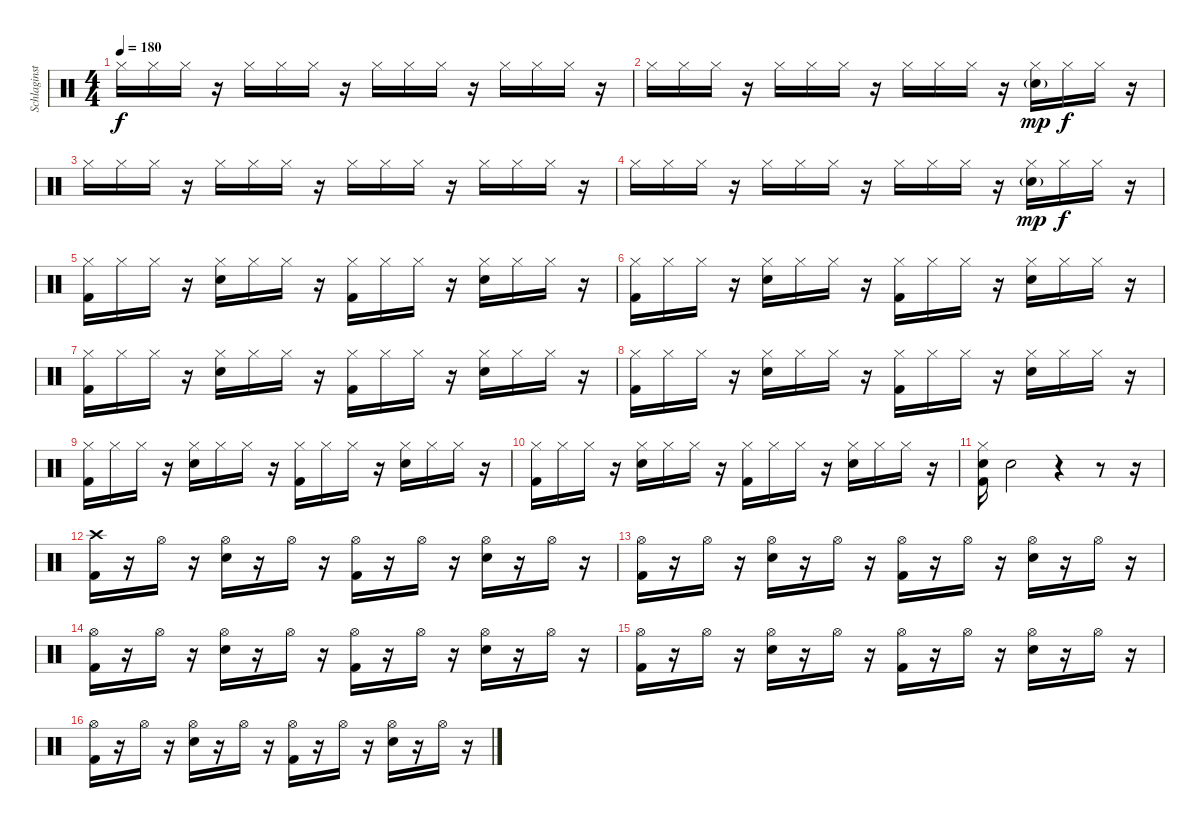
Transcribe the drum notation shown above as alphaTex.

\track ("Schlaginstrumente - Auswahl" "Schlaginst") {instrument percussion}
\staff {score}
\articulation defaults
\ts (4 4)
\tempo 180
\clef neutral
\ks c "Hi-Hat (closed)".16{dy f} "Hi-Hat (closed)".16 "Hi-Hat (closed)".16
r.16 "Hi-Hat (closed)".16 "Hi-Hat (closed)".16 "Hi-Hat (closed)".16 r.16 "Hi-Hat (closed)".16 "Hi-Hat (closed)".16 "Hi-Hat (closed)".16 r.16 "Hi-Hat (closed)".16 "Hi-Hat (closed)".16 "Hi-Hat (closed)".16 r.16 |
"Hi-Hat (closed)".16 "Hi-Hat (closed)".16 "Hi-Hat (closed)".16 r.16 "Hi-Hat (closed)".16 "Hi-Hat (closed)".16 "Hi-Hat (closed)".16 r.16 "Hi-Hat (closed)".16 "Hi-Hat (closed)".16 "Hi-Hat (closed)".16 r.16 ("Hi-Hat (closed)" "Snare (hit) 2"{g}).16{dy mp} "Hi-Hat (closed)".16{dy f} "Hi-Hat (closed)".16 r.16 |
"Hi-Hat (closed)".16 "Hi-Hat (closed)".16 "Hi-Hat (closed)".16 r.16 "Hi-Hat (closed)".16 "Hi-Hat (closed)".16 "Hi-Hat (closed)".16 r.16 "Hi-Hat (closed)".16 "Hi-Hat (closed)".16 "Hi-Hat (closed)".16 r.16 "Hi-Hat (closed)".16 "Hi-Hat (closed)".16 "Hi-Hat (closed)".16 r.16 |
"Hi-Hat (closed)".16 "Hi-Hat (closed)".16 "Hi-Hat (closed)".16 r.16 "Hi-Hat (closed)".16 "Hi-Hat (closed)".16 "Hi-Hat (closed)".16 r.16 "Hi-Hat (closed)".16 "Hi-Hat (closed)".16 "Hi-Hat (closed)".16 r.16 ("Hi-Hat (closed)" "Snare (hit) 2"{g}).16{dy mp} "Hi-Hat (closed)".16{dy f} "Hi-Hat (closed)".16 r.16 |
("Hi-Hat (closed)" "Kick (hit) 2").16 "Hi-Hat (closed)".16 "Hi-Hat (closed)".16 r.16 ("Hi-Hat (closed)" "Snare (hit) 2").16 "Hi-Hat (closed)".16 "Hi-Hat (closed)".16 r.16 ("Hi-Hat (closed)" "Kick (hit) 2").16 "Hi-Hat (closed)".16 "Hi-Hat (closed)".16 r.16 ("Hi-Hat (closed)" "Snare (hit) 2").16 "Hi-Hat (closed)".16 "Hi-Hat (closed)".16 r.16 |
("Hi-Hat (closed)" "Kick (hit) 2").16 "Hi-Hat (closed)".16 "Hi-Hat (closed)".16 r.16 ("Hi-Hat (closed)" "Snare (hit) 2").16 "Hi-Hat (closed)".16 "Hi-Hat (closed)".16 r.16 ("Hi-Hat (closed)" "Kick (hit) 2").16 "Hi-Hat (closed)".16 "Hi-Hat (closed)".16 r.16 ("Hi-Hat (closed)" "Snare (hit) 2").16 "Hi-Hat (closed)".16 "Hi-Hat (closed)".16 r.16 |
("Hi-Hat (closed)" "Kick (hit) 2").16 "Hi-Hat (closed)".16 "Hi-Hat (closed)".16 r.16 ("Hi-Hat (closed)" "Snare (hit) 2").16 "Hi-Hat (closed)".16 "Hi-Hat (closed)".16 r.16 ("Hi-Hat (closed)" "Kick (hit) 2").16 "Hi-Hat (closed)".16 "Hi-Hat (closed)".16 r.16 ("Hi-Hat (closed)" "Snare (hit) 2").16 "Hi-Hat (closed)".16 "Hi-Hat (closed)".16 r.16 |
("Hi-Hat (closed)" "Kick (hit) 2").16 "Hi-Hat (closed)".16 "Hi-Hat (closed)".16 r.16 ("Hi-Hat (closed)" "Snare (hit) 2").16 "Hi-Hat (closed)".16 "Hi-Hat (closed)".16 r.16 ("Hi-Hat (closed)" "Kick (hit) 2").16 "Hi-Hat (closed)".16 "Hi-Hat (closed)".16 r.16 ("Hi-Hat (closed)" "Snare (hit) 2").16 "Hi-Hat (closed)".16 "Hi-Hat (closed)".16 r.16 |
("Hi-Hat (closed)" "Kick (hit) 2").16 "Hi-Hat (closed)".16 "Hi-Hat (closed)".16 r.16 ("Hi-Hat (closed)" "Snare (hit) 2").16 "Hi-Hat (closed)".16 "Hi-Hat (closed)".16 r.16 ("Hi-Hat (closed)" "Kick (hit) 2").16 "Hi-Hat (closed)".16 "Hi-Hat (closed)".16 r.16 ("Hi-Hat (closed)" "Snare (hit) 2").16 "Hi-Hat (closed)".16 "Hi-Hat (closed)".16 r.16 |
("Hi-Hat (closed)" "Kick (hit) 2").16 "Hi-Hat (closed)".16 "Hi-Hat (closed)".16 r.16 ("Hi-Hat (closed)" "Snare (hit) 2").16 "Hi-Hat (closed)".16 "Hi-Hat (closed)".16 r.16 ("Hi-Hat (closed)" "Kick (hit) 2").16 "Hi-Hat (closed)".16 "Hi-Hat (closed)".16 r.16 ("Hi-Hat (closed)" "Snare (hit) 2").16 "Hi-Hat (closed)".16 "Hi-Hat (closed)".16 r.16 |
("Hi-Hat (closed)" "Snare (hit) 2" "Kick (hit) 2").16 "Snare (hit) 2".2 r.4 r.8 r.16 |
("Crash high (hit)" "Kick (hit) 2").16 r.16 "Hi-Hat (open)".16 r.16 ("Hi-Hat (open)" "Snare (hit) 2").16 r.16 "Hi-Hat (open)".16 r.16 ("Hi-Hat (open)" "Kick (hit) 2").16 r.16 "Hi-Hat (open)".16 r.16 ("Hi-Hat (open)" "Snare (hit) 2").16 r.16 "Hi-Hat (open)".16 r.16 |
("Hi-Hat (open)" "Kick (hit) 2").16 r.16 "Hi-Hat (open)".16 r.16 ("Hi-Hat (open)" "Snare (hit) 2").16 r.16 "Hi-Hat (open)".16 r.16 ("Hi-Hat (open)" "Kick (hit) 2").16 r.16 "Hi-Hat (open)".16 r.16 ("Hi-Hat (open)" "Snare (hit) 2").16 r.16 "Hi-Hat (open)".16 r.16 |
("Hi-Hat (open)" "Kick (hit) 2").16 r.16 "Hi-Hat (open)".16 r.16 ("Hi-Hat (open)" "Snare (hit) 2").16 r.16 "Hi-Hat (open)".16 r.16 ("Hi-Hat (open)" "Kick (hit) 2").16 r.16 "Hi-Hat (open)".16 r.16 ("Hi-Hat (open)" "Snare (hit) 2").16 r.16 "Hi-Hat (open)".16 r.16 |
("Hi-Hat (open)" "Kick (hit) 2").16 r.16 "Hi-Hat (open)".16 r.16 ("Hi-Hat (open)" "Snare (hit) 2").16 r.16 "Hi-Hat (open)".16 r.16 ("Hi-Hat (open)" "Kick (hit) 2").16 r.16 "Hi-Hat (open)".16 r.16 ("Hi-Hat (open)" "Snare (hit) 2").16 r.16 "Hi-Hat (open)".16 r.16 |
("Hi-Hat (open)" "Kick (hit) 2").16 r.16 "Hi-Hat (open)".16 r.16 ("Hi-Hat (open)" "Snare (hit) 2").16 r.16 "Hi-Hat (open)".16 r.16 ("Hi-Hat (open)" "Kick (hit) 2").16 r.16 "Hi-Hat (open)".16 r.16 ("Hi-Hat (open)" "Snare (hit) 2").16 r.16 "Hi-Hat (open)".16 r.16
